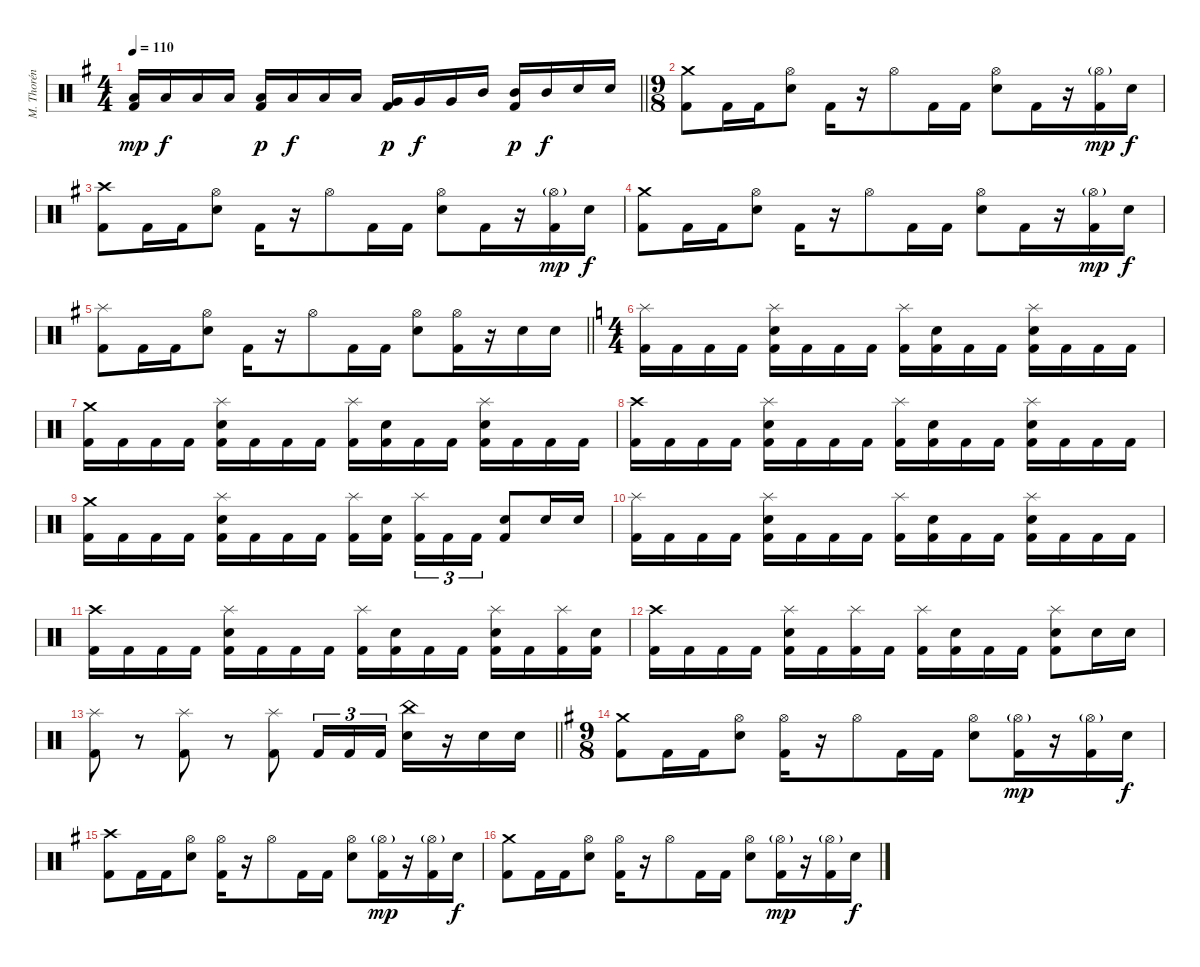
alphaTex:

\track ("M. Thorén (Drums)" "M. Thorén ") {instrument percussion}
\staff {score}
\articulation defaults
\ts (4 4)
\tempo 110
\clef neutral
\barLineRight lightlight
\ks eminor
("Low Floor Tom (hit)" "Kick (hit) 2").16{dy mp} "Low Floor Tom (hit)".16{dy f} "Low Floor Tom (hit)".16 "Low Floor Tom (hit)".16 ("Low Tom (hit)" "Kick (hit) 2").16{dy p} "Low Tom (hit)".16{dy f} "Low Tom (hit)".16 "Low Tom (hit)".16 ("Very Low Tom (hit)" "Kick (hit) 2").16{dy p} "Very Low Tom (hit)".16{dy f} "Very Low Tom (hit)".16 "Mid Tom (hit)".16 ("Mid Tom (hit)" "Kick (hit) 2").16{dy p} "Mid Tom (hit)".16{dy f} "Electric Snare (hit)".16 "Electric Snare (hit)".16 |
\ts (9 8)
("Crash medium (hit)" "Kick (hit) 2").8 "Kick (hit) 2".16 "Kick (hit) 2".16 ("Hi-Hat (open)" "Electric Snare (hit)").8 "Kick (hit) 2".16 r.16 "Hi-Hat (open)".8 "Kick (hit) 2".16 "Kick (hit) 2".16 ("Hi-Hat (open)" "Electric Snare (hit)").8 "Kick (hit) 2".16 r.16 ("Hi-Hat (open)"{g} "Kick (hit) 2").16{dy mp} "Electric Snare (hit)".16{dy f} |
("Crash high (hit)" "Kick (hit) 2").8 "Kick (hit) 2".16 "Kick (hit) 2".16 ("Hi-Hat (open)" "Electric Snare (hit)").8 "Kick (hit) 2".16 r.16 "Hi-Hat (open)".8 "Kick (hit) 2".16 "Kick (hit) 2".16 ("Hi-Hat (open)" "Electric Snare (hit)").8 "Kick (hit) 2".16 r.16 ("Hi-Hat (open)"{g} "Kick (hit) 2").16{dy mp} "Electric Snare (hit)".16{dy f} |
("Crash medium (hit)" "Kick (hit) 2").8 "Kick (hit) 2".16 "Kick (hit) 2".16 ("Hi-Hat (open)" "Electric Snare (hit)").8 "Kick (hit) 2".16 r.16 "Hi-Hat (open)".8 "Kick (hit) 2".16 "Kick (hit) 2".16 ("Hi-Hat (open)" "Electric Snare (hit)").8 "Kick (hit) 2".16 r.16 ("Hi-Hat (open)"{g} "Kick (hit) 2").16{dy mp} "Electric Snare (hit)".16{dy f} |
\barLineRight lightlight
("Splash (hit)" "Kick (hit) 2").8 "Kick (hit) 2".16 "Kick (hit) 2".16 ("Hi-Hat (open)" "Electric Snare (hit)").8 "Kick (hit) 2".16 r.16 "Hi-Hat (open)".8 "Kick (hit) 2".16 "Kick (hit) 2".16 ("Hi-Hat (open)" "Electric Snare (hit)").8 ("Hi-Hat (open)" "Kick (hit) 2").16 r.16 "Electric Snare (hit)".16 "Electric Snare (hit)".16 |
\ts (4 4)
\ks aminor
("Splash (hit)" "Kick (hit) 2").16 "Kick (hit) 2".16 "Kick (hit) 2".16 "Kick (hit) 2".16 ("Splash (hit)" "Electric Snare (hit)" "Kick (hit) 2").16 "Kick (hit) 2".16 "Kick (hit) 2".16 "Kick (hit) 2".16 ("Splash (hit)" "Kick (hit) 2").16 ("Electric Snare (hit)" "Kick (hit) 2").16 "Kick (hit) 2".16 "Kick (hit) 2".16 ("Splash (hit)" "Electric Snare (hit)" "Kick (hit) 2").16 "Kick (hit) 2".16 "Kick (hit) 2".16 "Kick (hit) 2".16 |
("Crash medium (hit)" "Kick (hit) 2").16 "Kick (hit) 2".16 "Kick (hit) 2".16 "Kick (hit) 2".16 ("Splash (hit)" "Electric Snare (hit)" "Kick (hit) 2").16 "Kick (hit) 2".16 "Kick (hit) 2".16 "Kick (hit) 2".16 ("Splash (hit)" "Kick (hit) 2").16 ("Electric Snare (hit)" "Kick (hit) 2").16 "Kick (hit) 2".16 "Kick (hit) 2".16 ("Splash (hit)" "Electric Snare (hit)" "Kick (hit) 2").16 "Kick (hit) 2".16 "Kick (hit) 2".16 "Kick (hit) 2".16 |
("Crash high (hit)" "Kick (hit) 2").16 "Kick (hit) 2".16 "Kick (hit) 2".16 "Kick (hit) 2".16 ("Splash (hit)" "Electric Snare (hit)" "Kick (hit) 2").16 "Kick (hit) 2".16 "Kick (hit) 2".16 "Kick (hit) 2".16 ("Splash (hit)" "Kick (hit) 2").16 ("Electric Snare (hit)" "Kick (hit) 2").16 "Kick (hit) 2".16 "Kick (hit) 2".16 ("Splash (hit)" "Electric Snare (hit)" "Kick (hit) 2").16 "Kick (hit) 2".16 "Kick (hit) 2".16 "Kick (hit) 2".16 |
("Crash medium (hit)" "Kick (hit) 2").16 "Kick (hit) 2".16 "Kick (hit) 2".16 "Kick (hit) 2".16 ("Splash (hit)" "Electric Snare (hit)" "Kick (hit) 2").16 "Kick (hit) 2".16 "Kick (hit) 2".16 "Kick (hit) 2".16 ("Splash (hit)" "Kick (hit) 2").16 ("Electric Snare (hit)" "Kick (hit) 2").16{beam splitsecondary} ("Splash (hit)" "Kick (hit) 2").16{tu (3 2)} "Kick (hit) 2".16{tu (3 2)} "Kick (hit) 2".16{tu (3 2)} ("Electric Snare (hit)" "Kick (hit) 2").8 "Electric Snare (hit)".16 "Electric Snare (hit)".16 |
("Splash (hit)" "Kick (hit) 2").16 "Kick (hit) 2".16 "Kick (hit) 2".16 "Kick (hit) 2".16 ("Splash (hit)" "Electric Snare (hit)" "Kick (hit) 2").16 "Kick (hit) 2".16 "Kick (hit) 2".16 "Kick (hit) 2".16 ("Splash (hit)" "Kick (hit) 2").16 ("Electric Snare (hit)" "Kick (hit) 2").16 "Kick (hit) 2".16 "Kick (hit) 2".16 ("Splash (hit)" "Electric Snare (hit)" "Kick (hit) 2").16 "Kick (hit) 2".16 "Kick (hit) 2".16 "Kick (hit) 2".16 |
("Crash high (hit)" "Kick (hit) 2").16 "Kick (hit) 2".16 "Kick (hit) 2".16 "Kick (hit) 2".16 ("Splash (hit)" "Electric Snare (hit)" "Kick (hit) 2").16 "Kick (hit) 2".16 "Kick (hit) 2".16 "Kick (hit) 2".16 ("Splash (hit)" "Kick (hit) 2").16 ("Electric Snare (hit)" "Kick (hit) 2").16 "Kick (hit) 2".16 "Kick (hit) 2".16 ("Splash (hit)" "Electric Snare (hit)" "Kick (hit) 2").16 "Kick (hit) 2".16 ("Splash (hit)" "Kick (hit) 2").16 ("Electric Snare (hit)" "Kick (hit) 2").16 |
("Crash high (hit)" "Kick (hit) 2").16 "Kick (hit) 2".16 "Kick (hit) 2".16 "Kick (hit) 2".16 ("Splash (hit)" "Electric Snare (hit)" "Kick (hit) 2").16 "Kick (hit) 2".16 ("Splash (hit)" "Kick (hit) 2").16 "Kick (hit) 2".16 ("Splash (hit)" "Kick (hit) 2").16 ("Electric Snare (hit)" "Kick (hit) 2").16 "Kick (hit) 2".16 "Kick (hit) 2".16 ("Splash (hit)" "Electric Snare (hit)" "Kick (hit) 2").8 "Electric Snare (hit)".16 "Electric Snare (hit)".16 |
\barLineRight lightlight
("Splash (hit)" "Kick (hit) 2").8 r.8{volume 0} ("Splash (hit)" "Kick (hit) 2").8{volume 12} r.8{volume 0} ("Splash (hit)" "Kick (hit) 2").8{volume 12} "Kick (hit) 2".16{tu (3 2)} "Kick (hit) 2".16{tu (3 2)} "Kick (hit) 2".16{tu (3 2)} ("China (hit)" "Electric Snare (hit)").16 r.16 "Electric Snare (hit)".16 "Electric Snare (hit)".16 |
\ts (9 8)
\ks eminor
("Crash medium (hit)" "Kick (hit) 2").8 "Kick (hit) 2".16 "Kick (hit) 2".16 ("Hi-Hat (open)" "Electric Snare (hit)").8 ("Hi-Hat (open)" "Kick (hit) 2").16 r.16 "Hi-Hat (open)".8 "Kick (hit) 2".16 "Kick (hit) 2".16 ("Hi-Hat (open)" "Electric Snare (hit)").8 ("Hi-Hat (open)"{g} "Kick (hit) 2").16{dy mp} r.16 ("Hi-Hat (open)"{g} "Kick (hit) 2").16 "Electric Snare (hit)".16{dy f} |
("Crash high (hit)" "Kick (hit) 2").8 "Kick (hit) 2".16 "Kick (hit) 2".16 ("Hi-Hat (open)" "Electric Snare (hit)").8 ("Hi-Hat (open)" "Kick (hit) 2").16 r.16 "Hi-Hat (open)".8 "Kick (hit) 2".16 "Kick (hit) 2".16 ("Hi-Hat (open)" "Electric Snare (hit)").8 ("Hi-Hat (open)"{g} "Kick (hit) 2").16{dy mp} r.16 ("Hi-Hat (open)"{g} "Kick (hit) 2").16 "Electric Snare (hit)".16{dy f} |
("Crash medium (hit)" "Kick (hit) 2").8 "Kick (hit) 2".16 "Kick (hit) 2".16 ("Hi-Hat (open)" "Electric Snare (hit)").8 ("Hi-Hat (open)" "Kick (hit) 2").16 r.16 "Hi-Hat (open)".8 "Kick (hit) 2".16 "Kick (hit) 2".16 ("Hi-Hat (open)" "Electric Snare (hit)").8 ("Hi-Hat (open)"{g} "Kick (hit) 2").16{dy mp} r.16 ("Hi-Hat (open)"{g} "Kick (hit) 2").16 "Electric Snare (hit)".16{dy f}
